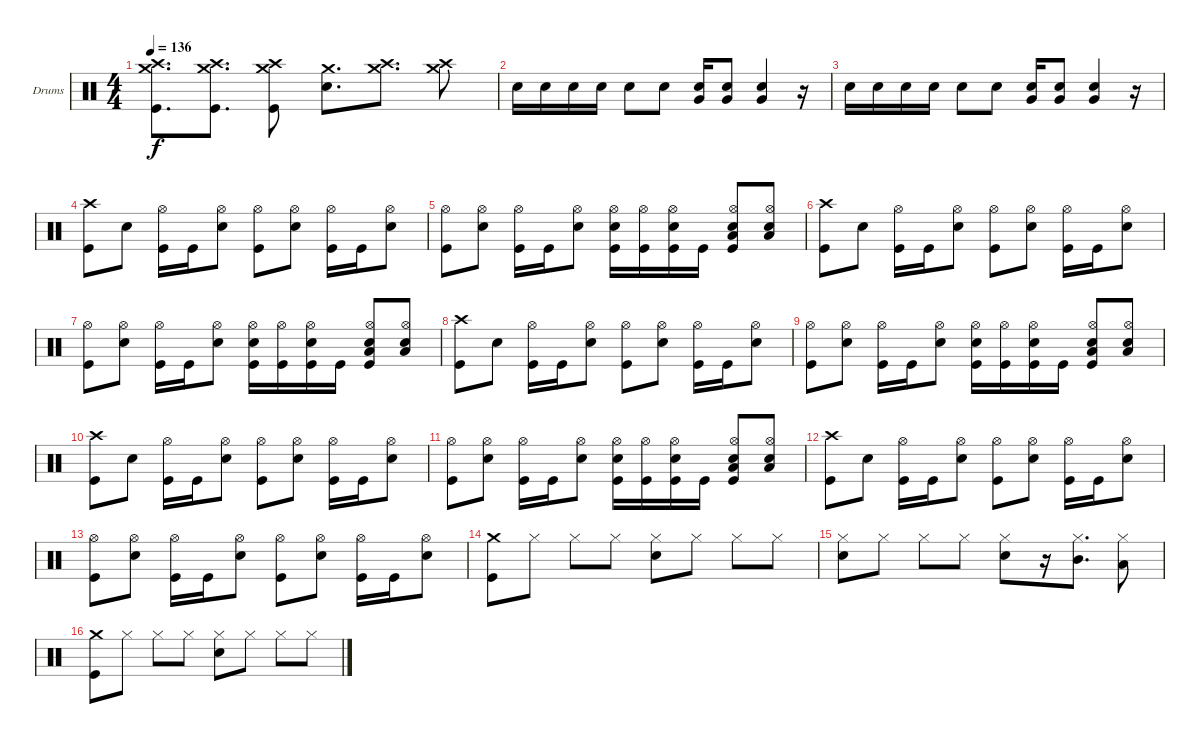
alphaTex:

\defaultSystemsLayout 4
\bracketExtendMode groupsimilarinstruments
\firstSystemTrackNameOrientation horizontal
\otherSystemsTrackNameOrientation horizontal
\track ("Lars Ulrich (Drums)" "Drums") {instrument percussion}
\staff {score}
\articulation defaults
\ts (4 4)
\tempo 136
\clef neutral
\ks c
("Crash high (hit)" "Crash medium (hit)" "Kick (hit)").8{d dy f} ("Crash high (hit)" "Crash medium (hit)" "Kick (hit)").8{d} ("Crash high (hit)" "Crash medium (hit)" "Kick (hit)").8 ("Crash medium (hit)" "Snare (hit) 2").8{d} ("Crash high (hit)" "Crash medium (hit)").8{d} ("Crash high (hit)" "Crash medium (hit)").8 |
"Snare (hit) 2".16 "Snare (hit) 2".16 "Snare (hit) 2".16 "Snare (hit) 2".16 "Snare (hit) 2".8 "Snare (hit) 2".8 ("Snare (hit) 2" "Very Low Tom (hit)").16 ("Snare (hit) 2" "Very Low Tom (hit)").8 ("Snare (hit) 2" "Very Low Tom (hit)").4 r.16 |
"Snare (hit) 2".16 "Snare (hit) 2".16 "Snare (hit) 2".16 "Snare (hit) 2".16 "Snare (hit) 2".8 "Snare (hit) 2".8 ("Snare (hit) 2" "Very Low Tom (hit)").16 ("Snare (hit) 2" "Very Low Tom (hit)").8 ("Snare (hit) 2" "Very Low Tom (hit)").4 r.16 |
("Crash high (hit)" "Kick (hit)").8 "Snare (hit) 2".8 ("Hi-Hat (open)" "Kick (hit)").16 "Kick (hit)".16 ("Hi-Hat (open)" "Snare (hit) 2").8 ("Hi-Hat (open)" "Kick (hit)").8 ("Hi-Hat (open)" "Snare (hit) 2").8 ("Hi-Hat (open)" "Kick (hit)").16 "Kick (hit)".16 ("Hi-Hat (open)" "Snare (hit) 2").8 |
("Hi-Hat (open)" "Kick (hit)").8 ("Hi-Hat (open)" "Snare (hit) 2").8 ("Hi-Hat (open)" "Kick (hit)").16 "Kick (hit)".16 ("Hi-Hat (open)" "Snare (hit) 2").8 ("Hi-Hat (open)" "Snare (hit) 2" "Kick (hit)").16 ("Hi-Hat (open)" "Kick (hit)").16 ("Hi-Hat (open)" "Snare (hit) 2" "Kick (hit)").16 "Kick (hit)".16 ("Hi-Hat (open)" "Snare (hit) 2" "Low Tom (hit)" "Kick (hit)").8 ("Hi-Hat (open)" "Snare (hit) 2" "Low Tom (hit)").8 |
("Crash high (hit)" "Kick (hit)").8 "Snare (hit) 2".8 ("Hi-Hat (open)" "Kick (hit)").16 "Kick (hit)".16 ("Hi-Hat (open)" "Snare (hit) 2").8 ("Hi-Hat (open)" "Kick (hit)").8 ("Hi-Hat (open)" "Snare (hit) 2").8 ("Hi-Hat (open)" "Kick (hit)").16 "Kick (hit)".16 ("Hi-Hat (open)" "Snare (hit) 2").8 |
("Hi-Hat (open)" "Kick (hit)").8 ("Hi-Hat (open)" "Snare (hit) 2").8 ("Hi-Hat (open)" "Kick (hit)").16 "Kick (hit)".16 ("Hi-Hat (open)" "Snare (hit) 2").8 ("Hi-Hat (open)" "Snare (hit) 2" "Kick (hit)").16 ("Hi-Hat (open)" "Kick (hit)").16 ("Hi-Hat (open)" "Snare (hit) 2" "Kick (hit)").16 "Kick (hit)".16 ("Hi-Hat (open)" "Snare (hit) 2" "Low Tom (hit)" "Kick (hit)").8 ("Hi-Hat (open)" "Snare (hit) 2" "Low Tom (hit)").8 |
("Crash high (hit)" "Kick (hit)").8 "Snare (hit) 2".8 ("Hi-Hat (open)" "Kick (hit)").16 "Kick (hit)".16 ("Hi-Hat (open)" "Snare (hit) 2").8 ("Hi-Hat (open)" "Kick (hit)").8 ("Hi-Hat (open)" "Snare (hit) 2").8 ("Hi-Hat (open)" "Kick (hit)").16 "Kick (hit)".16 ("Hi-Hat (open)" "Snare (hit) 2").8 |
("Hi-Hat (open)" "Kick (hit)").8 ("Hi-Hat (open)" "Snare (hit) 2").8 ("Hi-Hat (open)" "Kick (hit)").16 "Kick (hit)".16 ("Hi-Hat (open)" "Snare (hit) 2").8 ("Hi-Hat (open)" "Snare (hit) 2" "Kick (hit)").16 ("Hi-Hat (open)" "Kick (hit)").16 ("Hi-Hat (open)" "Snare (hit) 2" "Kick (hit)").16 "Kick (hit)".16 ("Hi-Hat (open)" "Snare (hit) 2" "Low Tom (hit)" "Kick (hit)").8 ("Hi-Hat (open)" "Snare (hit) 2" "Low Tom (hit)").8 |
("Crash high (hit)" "Kick (hit)").8 "Snare (hit) 2".8 ("Hi-Hat (open)" "Kick (hit)").16 "Kick (hit)".16 ("Hi-Hat (open)" "Snare (hit) 2").8 ("Hi-Hat (open)" "Kick (hit)").8 ("Hi-Hat (open)" "Snare (hit) 2").8 ("Hi-Hat (open)" "Kick (hit)").16 "Kick (hit)".16 ("Hi-Hat (open)" "Snare (hit) 2").8 |
("Hi-Hat (open)" "Kick (hit)").8 ("Hi-Hat (open)" "Snare (hit) 2").8 ("Hi-Hat (open)" "Kick (hit)").16 "Kick (hit)".16 ("Hi-Hat (open)" "Snare (hit) 2").8 ("Hi-Hat (open)" "Snare (hit) 2" "Kick (hit)").16 ("Hi-Hat (open)" "Kick (hit)").16 ("Hi-Hat (open)" "Snare (hit) 2" "Kick (hit)").16 "Kick (hit)".16 ("Hi-Hat (open)" "Snare (hit) 2" "Low Tom (hit)" "Kick (hit)").8 ("Hi-Hat (open)" "Snare (hit) 2" "Low Tom (hit)").8 |
("Crash high (hit)" "Kick (hit)").8 "Snare (hit) 2".8 ("Hi-Hat (open)" "Kick (hit)").16 "Kick (hit)".16 ("Hi-Hat (open)" "Snare (hit) 2").8 ("Hi-Hat (open)" "Kick (hit)").8 ("Hi-Hat (open)" "Snare (hit) 2").8 ("Hi-Hat (open)" "Kick (hit)").16 "Kick (hit)".16 ("Hi-Hat (open)" "Snare (hit) 2").8 |
("Hi-Hat (open)" "Kick (hit)").8 ("Hi-Hat (open)" "Snare (hit) 2").8 ("Hi-Hat (open)" "Kick (hit)").16 "Kick (hit)".16 ("Hi-Hat (open)" "Snare (hit) 2").8 ("Hi-Hat (open)" "Kick (hit)").8 ("Hi-Hat (open)" "Snare (hit) 2").8 ("Hi-Hat (open)" "Kick (hit)").16 "Kick (hit)".16 ("Hi-Hat (open)" "Snare (hit) 2").8 |
("Crash medium (hit)" "Kick (hit)").8 "Hi-Hat (closed)".8 "Hi-Hat (closed)".8 "Hi-Hat (closed)".8 ("Hi-Hat (closed)" "Snare (hit) 2").8 "Hi-Hat (closed)".8 "Hi-Hat (closed)".8 "Hi-Hat (closed)".8 |
("Hi-Hat (closed)" "Snare (hit) 2").8 "Hi-Hat (closed)".8 "Hi-Hat (closed)".8 "Hi-Hat (closed)".8 ("Hi-Hat (closed)" "Snare (hit) 2").8 r.16 ("Hi-Hat (closed)" "Mid Tom (hit)").8{d} ("Hi-Hat (closed)" "Low Tom (hit)").8 |
("Crash medium (hit)" "Kick (hit)").8 "Hi-Hat (closed)".8 "Hi-Hat (closed)".8 "Hi-Hat (closed)".8 ("Hi-Hat (closed)" "Snare (hit) 2").8 "Hi-Hat (closed)".8 "Hi-Hat (closed)".8 "Hi-Hat (closed)".8
